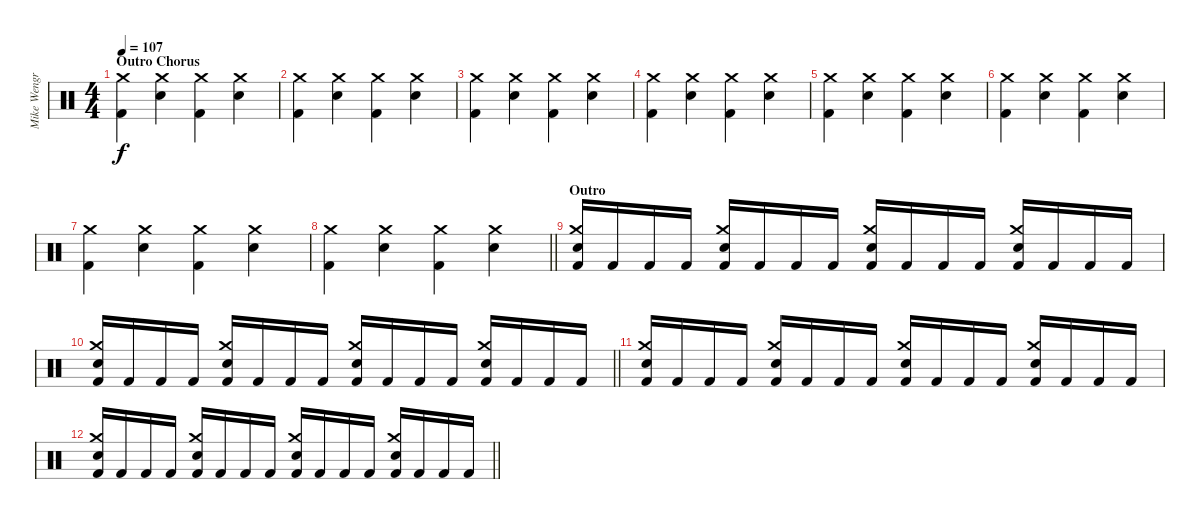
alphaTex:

\track ("Mike Wengren" "Mike Wengr") {instrument percussion}
\staff {score}
\articulation defaults
\ts (4 4)
\section ("" "Outro Chorus")
\tempo 107
\clef neutral
\ks c
("Kick (hit) 2" "Crash medium (hit)").4{dy f} ("Electric Snare (hit)" "Crash medium (hit)").4 ("Kick (hit) 2" "Crash medium (hit)").4 ("Electric Snare (hit)" "Crash medium (hit)").4 |
("Kick (hit) 2" "Crash medium (hit)").4 ("Electric Snare (hit)" "Crash medium (hit)").4 ("Kick (hit) 2" "Crash medium (hit)").4 ("Electric Snare (hit)" "Crash medium (hit)").4 |
("Kick (hit) 2" "Crash medium (hit)").4 ("Electric Snare (hit)" "Crash medium (hit)").4 ("Kick (hit) 2" "Crash medium (hit)").4 ("Electric Snare (hit)" "Crash medium (hit)").4 |
("Kick (hit) 2" "Crash medium (hit)").4 ("Electric Snare (hit)" "Crash medium (hit)").4 ("Kick (hit) 2" "Crash medium (hit)").4 ("Electric Snare (hit)" "Crash medium (hit)").4 |
("Kick (hit) 2" "Crash medium (hit)").4 ("Electric Snare (hit)" "Crash medium (hit)").4 ("Kick (hit) 2" "Crash medium (hit)").4 ("Electric Snare (hit)" "Crash medium (hit)").4 |
("Kick (hit) 2" "Crash medium (hit)").4 ("Electric Snare (hit)" "Crash medium (hit)").4 ("Kick (hit) 2" "Crash medium (hit)").4 ("Electric Snare (hit)" "Crash medium (hit)").4 |
("Kick (hit) 2" "Crash medium (hit)").4 ("Electric Snare (hit)" "Crash medium (hit)").4 ("Kick (hit) 2" "Crash medium (hit)").4 ("Electric Snare (hit)" "Crash medium (hit)").4 |
\barLineRight lightlight
("Kick (hit) 2" "Crash medium (hit)").4 ("Electric Snare (hit)" "Crash medium (hit)").4 ("Kick (hit) 2" "Crash medium (hit)").4 ("Electric Snare (hit)" "Crash medium (hit)").4 |
\section ("" "Outro")
("Kick (hit) 2" "Electric Snare (hit)" "Crash medium (hit)").16 "Kick (hit) 2".16 "Kick (hit) 2".16 "Kick (hit) 2".16 ("Kick (hit) 2" "Electric Snare (hit)" "Crash medium (hit)").16 "Kick (hit) 2".16 "Kick (hit) 2".16 "Kick (hit) 2".16 ("Kick (hit) 2" "Electric Snare (hit)" "Crash medium (hit)").16 "Kick (hit) 2".16 "Kick (hit) 2".16 "Kick (hit) 2".16 ("Kick (hit) 2" "Electric Snare (hit)" "Crash medium (hit)").16 "Kick (hit) 2".16 "Kick (hit) 2".16 "Kick (hit) 2".16 |
\barLineRight lightlight
("Kick (hit) 2" "Electric Snare (hit)" "Crash medium (hit)").16 "Kick (hit) 2".16 "Kick (hit) 2".16 "Kick (hit) 2".16 ("Kick (hit) 2" "Electric Snare (hit)" "Crash medium (hit)").16 "Kick (hit) 2".16 "Kick (hit) 2".16 "Kick (hit) 2".16 ("Kick (hit) 2" "Electric Snare (hit)" "Crash medium (hit)").16 "Kick (hit) 2".16 "Kick (hit) 2".16 "Kick (hit) 2".16 ("Kick (hit) 2" "Electric Snare (hit)" "Crash medium (hit)").16 "Kick (hit) 2".16 "Kick (hit) 2".16 "Kick (hit) 2".16 |
("Kick (hit) 2" "Electric Snare (hit)" "Crash medium (hit)").16 "Kick (hit) 2".16 "Kick (hit) 2".16 "Kick (hit) 2".16 ("Kick (hit) 2" "Electric Snare (hit)" "Crash medium (hit)").16 "Kick (hit) 2".16 "Kick (hit) 2".16 "Kick (hit) 2".16 ("Kick (hit) 2" "Electric Snare (hit)" "Crash medium (hit)").16 "Kick (hit) 2".16 "Kick (hit) 2".16 "Kick (hit) 2".16 ("Kick (hit) 2" "Electric Snare (hit)" "Crash medium (hit)").16 "Kick (hit) 2".16 "Kick (hit) 2".16 "Kick (hit) 2".16 |
\barLineRight lightlight
("Kick (hit) 2" "Electric Snare (hit)" "Crash medium (hit)").16 "Kick (hit) 2".16 "Kick (hit) 2".16 "Kick (hit) 2".16 ("Kick (hit) 2" "Electric Snare (hit)" "Crash medium (hit)").16 "Kick (hit) 2".16 "Kick (hit) 2".16 "Kick (hit) 2".16 ("Kick (hit) 2" "Electric Snare (hit)" "Crash medium (hit)").16 "Kick (hit) 2".16 "Kick (hit) 2".16 "Kick (hit) 2".16 ("Kick (hit) 2" "Electric Snare (hit)" "Crash medium (hit)").16 "Kick (hit) 2".16 "Kick (hit) 2".16 "Kick (hit) 2".16
